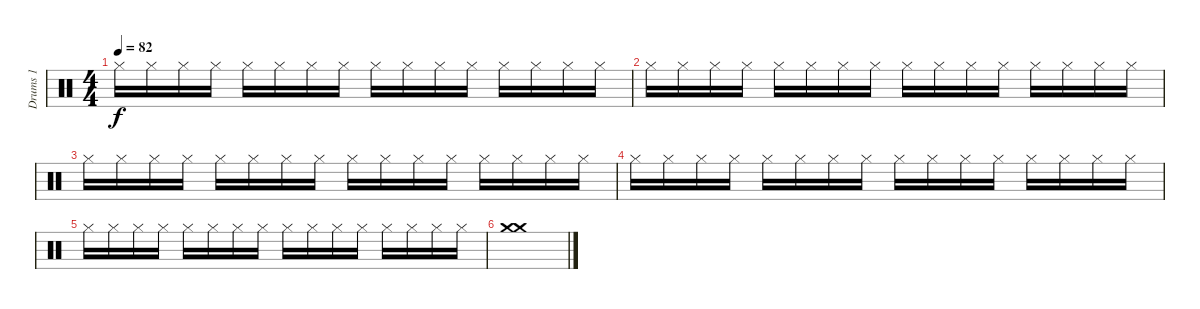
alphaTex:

\track ("Drums 1" "Drums 1") {instrument percussion}
\staff {score}
\articulation defaults
\ts (4 4)
\tempo 82
\clef neutral
\ks c "Hi-Hat (closed)".16{dy f} "Hi-Hat (closed)".16 "Hi-Hat (closed)".16 "Hi-Hat (closed)".16 "Hi-Hat (closed)".16 "Hi-Hat (closed)".16 "Hi-Hat (closed)".16 "Hi-Hat (closed)".16 "Hi-Hat (closed)".16 "Hi-Hat (closed)".16 "Hi-Hat (closed)".16 "Hi-Hat (closed)".16 "Hi-Hat (closed)".16 "Hi-Hat (closed)".16 "Hi-Hat (closed)".16 "Hi-Hat (closed)".16
|
"Hi-Hat (closed)".16 "Hi-Hat (closed)".16 "Hi-Hat (closed)".16 "Hi-Hat (closed)".16 "Hi-Hat (closed)".16 "Hi-Hat (closed)".16 "Hi-Hat (closed)".16 "Hi-Hat (closed)".16 "Hi-Hat (closed)".16 "Hi-Hat (closed)".16 "Hi-Hat (closed)".16 "Hi-Hat (closed)".16 "Hi-Hat (closed)".16 "Hi-Hat (closed)".16 "Hi-Hat (closed)".16 "Hi-Hat (closed)".16 |
"Hi-Hat (closed)".16 "Hi-Hat (closed)".16 "Hi-Hat (closed)".16 "Hi-Hat (closed)".16 "Hi-Hat (closed)".16 "Hi-Hat (closed)".16 "Hi-Hat (closed)".16 "Hi-Hat (closed)".16 "Hi-Hat (closed)".16 "Hi-Hat (closed)".16 "Hi-Hat (closed)".16 "Hi-Hat (closed)".16 "Hi-Hat (closed)".16 "Hi-Hat (closed)".16 "Hi-Hat (closed)".16 "Hi-Hat (closed)".16 |
"Hi-Hat (closed)".16 "Hi-Hat (closed)".16 "Hi-Hat (closed)".16 "Hi-Hat (closed)".16 "Hi-Hat (closed)".16 "Hi-Hat (closed)".16 "Hi-Hat (closed)".16 "Hi-Hat (closed)".16 "Hi-Hat (closed)".16 "Hi-Hat (closed)".16 "Hi-Hat (closed)".16 "Hi-Hat (closed)".16 "Hi-Hat (closed)".16 "Hi-Hat (closed)".16 "Hi-Hat (closed)".16 "Hi-Hat (closed)".16 |
"Hi-Hat (closed)".16 "Hi-Hat (closed)".16 "Hi-Hat (closed)".16 "Hi-Hat (closed)".16 "Hi-Hat (closed)".16 "Hi-Hat (closed)".16 "Hi-Hat (closed)".16 "Hi-Hat (closed)".16 "Hi-Hat (closed)".16 "Hi-Hat (closed)".16 "Hi-Hat (closed)".16 "Hi-Hat (closed)".16 "Hi-Hat (closed)".16 "Hi-Hat (closed)".16 "Hi-Hat (closed)".16 "Hi-Hat (closed)".16 |
("Crash medium (hit)" "Crash medium (hit)").1
